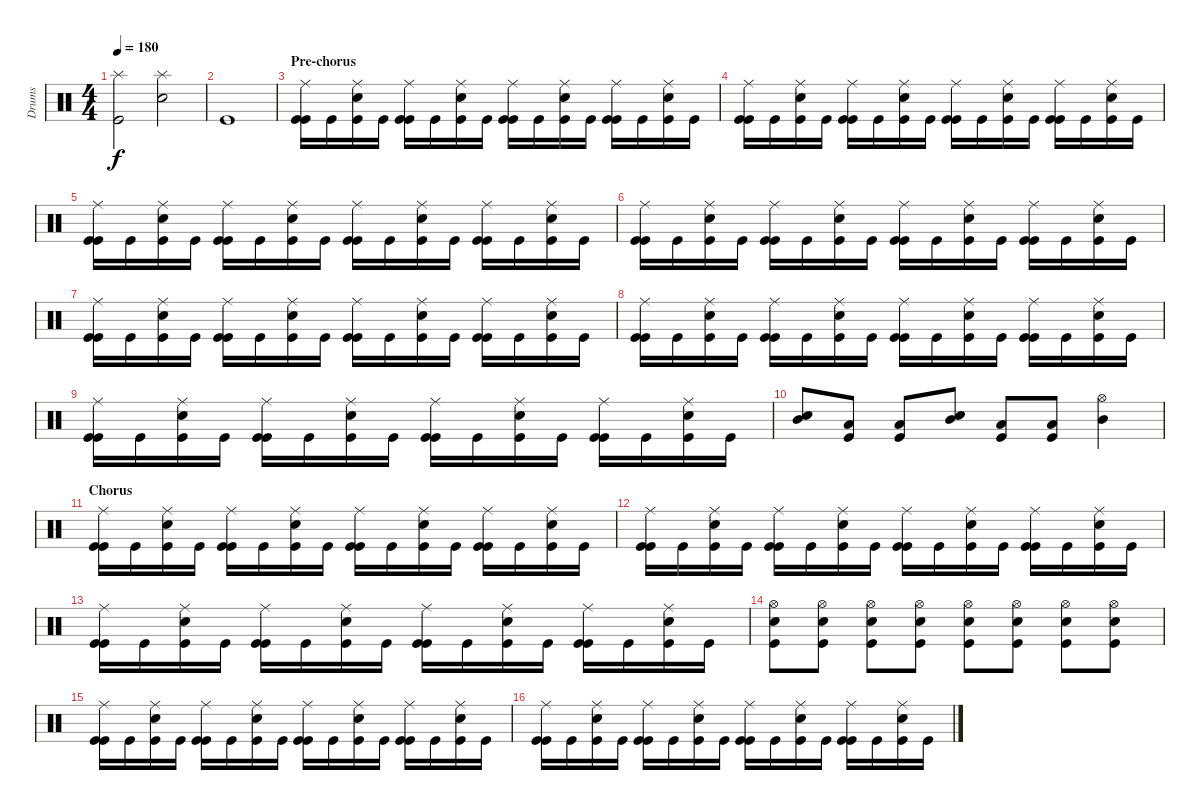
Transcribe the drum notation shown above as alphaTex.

\track ("Drums" "Drums") {instrument percussion}
\staff {score}
\articulation defaults
\ts (4 4)
\tempo 180
\clef neutral
\ks c
("Splash (hit)" "Kick (hit)").2{dy f} ("Splash (hit)" "Electric Snare (hit)").2 |
"Kick (hit)".1 |
\section ("" "Pre-chorus")
("Ride (middle)" "Kick (hit)" "Kick (hit)").16 "Kick (hit)".16 ("Ride (middle)" "Electric Snare (hit)" "Kick (hit)").16 "Kick (hit)".16 ("Ride (middle)" "Kick (hit)" "Kick (hit)").16 "Kick (hit)".16 ("Ride (middle)" "Electric Snare (hit)" "Kick (hit)").16 "Kick (hit)".16 ("Ride (middle)" "Kick (hit)" "Kick (hit)").16 "Kick (hit)".16 ("Ride (middle)" "Electric Snare (hit)" "Kick (hit)").16 "Kick (hit)".16 ("Ride (middle)" "Kick (hit)" "Kick (hit)").16 "Kick (hit)".16 ("Ride (middle)" "Electric Snare (hit)" "Kick (hit)").16 "Kick (hit)".16 |
("Ride (middle)" "Kick (hit)" "Kick (hit)").16 "Kick (hit)".16 ("Ride (middle)" "Electric Snare (hit)" "Kick (hit)").16 "Kick (hit)".16 ("Ride (middle)" "Kick (hit)" "Kick (hit)").16 "Kick (hit)".16 ("Ride (middle)" "Electric Snare (hit)" "Kick (hit)").16 "Kick (hit)".16 ("Ride (middle)" "Kick (hit)" "Kick (hit)").16 "Kick (hit)".16 ("Ride (middle)" "Electric Snare (hit)" "Kick (hit)").16 "Kick (hit)".16 ("Ride (middle)" "Kick (hit)" "Kick (hit)").16 "Kick (hit)".16 ("Ride (middle)" "Electric Snare (hit)" "Kick (hit)").16 "Kick (hit)".16 |
("Ride (middle)" "Kick (hit)" "Kick (hit)").16 "Kick (hit)".16 ("Ride (middle)" "Electric Snare (hit)" "Kick (hit)").16 "Kick (hit)".16 ("Ride (middle)" "Kick (hit)" "Kick (hit)").16 "Kick (hit)".16 ("Ride (middle)" "Electric Snare (hit)" "Kick (hit)").16 "Kick (hit)".16 ("Ride (middle)" "Kick (hit)" "Kick (hit)").16 "Kick (hit)".16 ("Ride (middle)" "Electric Snare (hit)" "Kick (hit)").16 "Kick (hit)".16 ("Ride (middle)" "Kick (hit)" "Kick (hit)").16 "Kick (hit)".16 ("Ride (middle)" "Electric Snare (hit)" "Kick (hit)").16 "Kick (hit)".16 |
("Ride (middle)" "Kick (hit)" "Kick (hit)").16 "Kick (hit)".16 ("Ride (middle)" "Electric Snare (hit)" "Kick (hit)").16 "Kick (hit)".16 ("Ride (middle)" "Kick (hit)" "Kick (hit)").16 "Kick (hit)".16 ("Ride (middle)" "Electric Snare (hit)" "Kick (hit)").16 "Kick (hit)".16 ("Ride (middle)" "Kick (hit)" "Kick (hit)").16 "Kick (hit)".16 ("Ride (middle)" "Electric Snare (hit)" "Kick (hit)").16 "Kick (hit)".16 ("Ride (middle)" "Kick (hit)" "Kick (hit)").16 "Kick (hit)".16 ("Ride (middle)" "Electric Snare (hit)" "Kick (hit)").16 "Kick (hit)".16 |
("Ride (middle)" "Kick (hit)" "Kick (hit)").16 "Kick (hit)".16 ("Ride (middle)" "Electric Snare (hit)" "Kick (hit)").16 "Kick (hit)".16 ("Ride (middle)" "Kick (hit)" "Kick (hit)").16 "Kick (hit)".16 ("Ride (middle)" "Electric Snare (hit)" "Kick (hit)").16 "Kick (hit)".16 ("Ride (middle)" "Kick (hit)" "Kick (hit)").16 "Kick (hit)".16 ("Ride (middle)" "Electric Snare (hit)" "Kick (hit)").16 "Kick (hit)".16 ("Ride (middle)" "Kick (hit)" "Kick (hit)").16 "Kick (hit)".16 ("Ride (middle)" "Electric Snare (hit)" "Kick (hit)").16 "Kick (hit)".16 |
("Ride (middle)" "Kick (hit)" "Kick (hit)").16 "Kick (hit)".16 ("Ride (middle)" "Electric Snare (hit)" "Kick (hit)").16 "Kick (hit)".16 ("Ride (middle)" "Kick (hit)" "Kick (hit)").16 "Kick (hit)".16 ("Ride (middle)" "Electric Snare (hit)" "Kick (hit)").16 "Kick (hit)".16 ("Ride (middle)" "Kick (hit)" "Kick (hit)").16 "Kick (hit)".16 ("Ride (middle)" "Electric Snare (hit)" "Kick (hit)").16 "Kick (hit)".16 ("Ride (middle)" "Kick (hit)" "Kick (hit)").16 "Kick (hit)".16 ("Ride (middle)" "Electric Snare (hit)" "Kick (hit)").16 "Kick (hit)".16 |
("Ride (middle)" "Kick (hit)" "Kick (hit)").16 "Kick (hit)".16 ("Ride (middle)" "Electric Snare (hit)" "Kick (hit)").16 "Kick (hit)".16 ("Ride (middle)" "Kick (hit)" "Kick (hit)").16 "Kick (hit)".16 ("Ride (middle)" "Electric Snare (hit)" "Kick (hit)").16 "Kick (hit)".16 ("Ride (middle)" "Kick (hit)" "Kick (hit)").16 "Kick (hit)".16 ("Ride (middle)" "Electric Snare (hit)" "Kick (hit)").16 "Kick (hit)".16 ("Ride (middle)" "Kick (hit)" "Kick (hit)").16 "Kick (hit)".16 ("Ride (middle)" "Electric Snare (hit)" "Kick (hit)").16 "Kick (hit)".16 |
("Electric Snare (hit)" "Mid Tom (hit)").8 ("Low Tom (hit)" "Kick (hit)").8 ("Low Tom (hit)" "Kick (hit)").8 ("Electric Snare (hit)" "Mid Tom (hit)").8 ("Low Tom (hit)" "Kick (hit)").8 ("Low Tom (hit)" "Kick (hit)").8 ("Hi-Hat (open)" "Mid Tom (hit)").4 |
\section ("" "Chorus")
("Ride (middle)" "Kick (hit)" "Kick (hit)").16 "Kick (hit)".16 ("Ride (middle)" "Electric Snare (hit)" "Kick (hit)").16 "Kick (hit)".16 ("Ride (middle)" "Kick (hit)" "Kick (hit)").16 "Kick (hit)".16 ("Ride (middle)" "Electric Snare (hit)" "Kick (hit)").16 "Kick (hit)".16 ("Ride (middle)" "Kick (hit)" "Kick (hit)").16 "Kick (hit)".16 ("Ride (middle)" "Electric Snare (hit)" "Kick (hit)").16 "Kick (hit)".16 ("Ride (middle)" "Kick (hit)" "Kick (hit)").16 "Kick (hit)".16 ("Ride (middle)" "Electric Snare (hit)" "Kick (hit)").16 "Kick (hit)".16 |
("Ride (middle)" "Kick (hit)" "Kick (hit)").16 "Kick (hit)".16 ("Ride (middle)" "Electric Snare (hit)" "Kick (hit)").16 "Kick (hit)".16 ("Ride (middle)" "Kick (hit)" "Kick (hit)").16 "Kick (hit)".16 ("Ride (middle)" "Electric Snare (hit)" "Kick (hit)").16 "Kick (hit)".16 ("Ride (middle)" "Kick (hit)" "Kick (hit)").16 "Kick (hit)".16 ("Ride (middle)" "Electric Snare (hit)" "Kick (hit)").16 "Kick (hit)".16 ("Ride (middle)" "Kick (hit)" "Kick (hit)").16 "Kick (hit)".16 ("Ride (middle)" "Electric Snare (hit)" "Kick (hit)").16 "Kick (hit)".16 |
("Ride (middle)" "Kick (hit)" "Kick (hit)").16 "Kick (hit)".16 ("Ride (middle)" "Electric Snare (hit)" "Kick (hit)").16 "Kick (hit)".16 ("Ride (middle)" "Kick (hit)" "Kick (hit)").16 "Kick (hit)".16 ("Ride (middle)" "Electric Snare (hit)" "Kick (hit)").16 "Kick (hit)".16 ("Ride (middle)" "Kick (hit)" "Kick (hit)").16 "Kick (hit)".16 ("Ride (middle)" "Electric Snare (hit)" "Kick (hit)").16 "Kick (hit)".16 ("Ride (middle)" "Kick (hit)" "Kick (hit)").16 "Kick (hit)".16 ("Ride (middle)" "Electric Snare (hit)" "Kick (hit)").16 "Kick (hit)".16 |
("Hi-Hat (open)" "Electric Snare (hit)" "Kick (hit)").8 ("Hi-Hat (open)" "Electric Snare (hit)" "Kick (hit)").8 ("Hi-Hat (open)" "Electric Snare (hit)" "Kick (hit)").8 ("Hi-Hat (open)" "Electric Snare (hit)" "Kick (hit)").8 ("Hi-Hat (open)" "Electric Snare (hit)" "Kick (hit)").8 ("Hi-Hat (open)" "Electric Snare (hit)" "Kick (hit)").8 ("Hi-Hat (open)" "Electric Snare (hit)" "Kick (hit)").8 ("Hi-Hat (open)" "Electric Snare (hit)" "Kick (hit)").8 |
("Ride (middle)" "Kick (hit)" "Kick (hit)").16 "Kick (hit)".16 ("Ride (middle)" "Electric Snare (hit)" "Kick (hit)").16 "Kick (hit)".16 ("Ride (middle)" "Kick (hit)" "Kick (hit)").16 "Kick (hit)".16 ("Ride (middle)" "Electric Snare (hit)" "Kick (hit)").16 "Kick (hit)".16 ("Ride (middle)" "Kick (hit)" "Kick (hit)").16 "Kick (hit)".16 ("Ride (middle)" "Electric Snare (hit)" "Kick (hit)").16 "Kick (hit)".16 ("Ride (middle)" "Kick (hit)" "Kick (hit)").16 "Kick (hit)".16 ("Ride (middle)" "Electric Snare (hit)" "Kick (hit)").16 "Kick (hit)".16 |
("Ride (middle)" "Kick (hit)" "Kick (hit)").16 "Kick (hit)".16 ("Ride (middle)" "Electric Snare (hit)" "Kick (hit)").16 "Kick (hit)".16 ("Ride (middle)" "Kick (hit)" "Kick (hit)").16 "Kick (hit)".16 ("Ride (middle)" "Electric Snare (hit)" "Kick (hit)").16 "Kick (hit)".16 ("Ride (middle)" "Kick (hit)" "Kick (hit)").16 "Kick (hit)".16 ("Ride (middle)" "Electric Snare (hit)" "Kick (hit)").16 "Kick (hit)".16 ("Ride (middle)" "Kick (hit)" "Kick (hit)").16 "Kick (hit)".16 ("Ride (middle)" "Electric Snare (hit)" "Kick (hit)").16 "Kick (hit)".16
